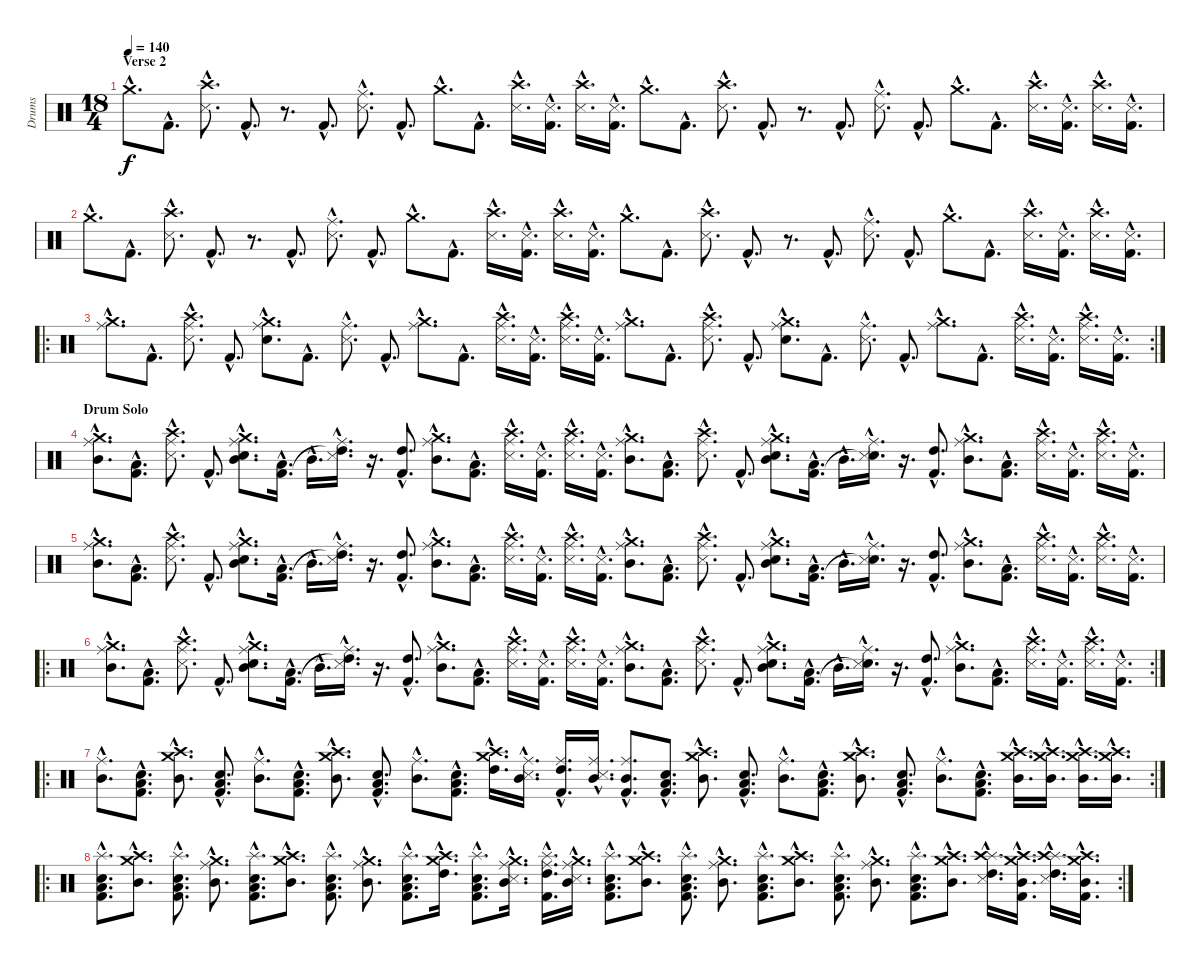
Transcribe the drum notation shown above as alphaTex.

\track ("Drums" "Drums") {instrument percussion}
\staff {score}
\articulation defaults
\ts (18 4)
\section ("" "Verse 2")
\tempo 140
\clef neutral
\ks c "Crash medium (hit)"{hac}.8{d dy f} "Kick (hit) 2"{hac}.8{d}
("Crash high (hit)"{hac} "Snare (side stick) 3"{hac}).8{d} "Kick (hit) 2"{hac}.8{d} r.8{d} "Kick (hit) 2"{hac}.8{d} ("Ride (middle)"{hac} "Snare (side stick) 3"{hac}).8{d} "Kick (hit) 2"{hac}.8{d} "Crash medium (hit)"{hac}.8{d} "Kick (hit) 2"{hac}.8{d} ("Crash high (hit)"{hac} "Snare (side stick) 3"{hac}).16{d} ("Snare (side stick) 3"{hac} "Kick (hit) 2"{hac}).16{d} ("Crash high (hit)"{hac} "Snare (side stick) 3"{hac}).16{d} ("Snare (side stick) 3"{hac} "Kick (hit) 2"{hac}).16{d} "Crash medium (hit)"{hac}.8{d} "Kick (hit) 2"{hac}.8{d} ("Crash high (hit)"{hac} "Snare (side stick) 3"{hac}).8{d} "Kick (hit) 2"{hac}.8{d} r.8{d} "Kick (hit) 2"{hac}.8{d} ("Ride (middle)"{hac} "Snare (side stick) 3"{hac}).8{d} "Kick (hit) 2"{hac}.8{d} "Crash medium (hit)"{hac}.8{d} "Kick (hit) 2"{hac}.8{d} ("Crash high (hit)"{hac} "Snare (side stick) 3"{hac}).16{d} ("Snare (side stick) 3"{hac} "Kick (hit) 2"{hac}).16{d} ("Crash high (hit)"{hac} "Snare (side stick) 3"{hac}).16{d} ("Snare (side stick) 3"{hac} "Kick (hit) 2"{hac}).16{d} |
"Crash medium (hit)"{hac}.8{d} "Kick (hit) 2"{hac}.8{d} ("Crash high (hit)"{hac} "Snare (side stick) 3"{hac}).8{d} "Kick (hit) 2"{hac}.8{d} r.8{d} "Kick (hit) 2"{hac}.8{d} ("Ride (middle)"{hac} "Snare (side stick) 3"{hac}).8{d} "Kick (hit) 2"{hac}.8{d} "Crash medium (hit)"{hac}.8{d} "Kick (hit) 2"{hac}.8{d} ("Crash high (hit)"{hac} "Snare (side stick) 3"{hac}).16{d} ("Snare (side stick) 3"{hac} "Kick (hit) 2"{hac}).16{d} ("Crash high (hit)"{hac} "Snare (side stick) 3"{hac}).16{d} ("Snare (side stick) 3"{hac} "Kick (hit) 2"{hac}).16{d} "Crash medium (hit)"{hac}.8{d} "Kick (hit) 2"{hac}.8{d} ("Crash high (hit)"{hac} "Snare (side stick) 3"{hac}).8{d} "Kick (hit) 2"{hac}.8{d} r.8{d} "Kick (hit) 2"{hac}.8{d} ("Ride (middle)"{hac} "Snare (side stick) 3"{hac}).8{d} "Kick (hit) 2"{hac}.8{d} "Crash medium (hit)"{hac}.8{d} "Kick (hit) 2"{hac}.8{d} ("Crash high (hit)"{hac} "Snare (side stick) 3"{hac}).16{d} ("Snare (side stick) 3"{hac} "Kick (hit) 2"{hac}).16{d} ("Crash high (hit)"{hac} "Snare (side stick) 3"{hac}).16{d} ("Snare (side stick) 3"{hac} "Kick (hit) 2"{hac}).16{d} |
\ro
\rc 2
("Crash medium (hit)"{hac} "Ride (middle)"{hac}).8{d} "Kick (hit) 2"{hac}.8{d} ("Ride (middle)"{hac} "Crash high (hit)"{hac} "Snare (side stick) 3"{hac}).8{d} "Kick (hit) 2"{hac}.8{d} ("Crash medium (hit)"{hac} "Ride (middle)"{hac} "Electric Snare (hit)"{hac}).8{d} "Kick (hit) 2"{hac}.8{d} ("Ride (middle)"{hac} "Snare (side stick) 3"{hac}).8{d} "Kick (hit) 2"{hac}.8{d} ("Crash medium (hit)"{hac} "Ride (middle)"{hac}).8{d} "Kick (hit) 2"{hac}.8{d} ("Ride (middle)"{hac} "Crash high (hit)"{hac} "Snare (side stick) 3"{hac}).16{d} ("Snare (side stick) 3"{hac} "Kick (hit) 2"{hac}).16{d} ("Ride (middle)"{hac} "Crash high (hit)"{hac} "Snare (side stick) 3"{hac}).16{d} ("Snare (side stick) 3"{hac} "Kick (hit) 2"{hac}).16{d} ("Crash medium (hit)"{hac} "Ride (middle)"{hac}).8{d} "Kick (hit) 2"{hac}.8{d} ("Ride (middle)"{hac} "Crash high (hit)"{hac} "Snare (side stick) 3"{hac}).8{d} "Kick (hit) 2"{hac}.8{d} ("Crash medium (hit)"{hac} "Ride (middle)"{hac} "Electric Snare (hit)"{hac}).8{d} "Kick (hit) 2"{hac}.8{d} ("Ride (middle)"{hac} "Snare (side stick) 3"{hac}).8{d} "Kick (hit) 2"{hac}.8{d} ("Crash medium (hit)"{hac} "Ride (middle)"{hac}).8{d} "Kick (hit) 2"{hac}.8{d} ("Ride (middle)"{hac} "Crash high (hit)"{hac} "Snare (side stick) 3"{hac}).16{d} ("Snare (side stick) 3"{hac} "Kick (hit) 2"{hac}).16{d} ("Ride (middle)"{hac} "Crash high (hit)"{hac} "Snare (side stick) 3"{hac}).16{d} ("Snare (side stick) 3"{hac} "Kick (hit) 2"{hac}).16{d} |
\section ("" "Drum Solo")
("Crash medium (hit)"{hac} "Ride (middle)"{hac} "Mid Tom (hit)"{hac}).8{d} ("Low Tom (hit)"{hac} "Kick (hit) 2"{hac}).8{d} ("Ride (middle)"{hac} "Crash high (hit)"{hac} "Snare (side stick) 3"{hac}).8{d} "Kick (hit) 2"{hac}.8{d} ("Crash medium (hit)"{hac} "Ride (middle)"{hac} "Mid Tom (hit)"{hac} "Electric Snare (hit)"{hac}).8{d} ("Low Tom (hit)"{hac} "Kick (hit) 2"{hac}).16{d} "Mid Tom (hit)"{hac}.16{d} ("Ride (middle)"{hac} "High Tom (hit)"{hac t} "Snare (side stick) 3"{hac}).16{d} r.16{d} ("High Tom (hit)"{hac} "Kick (hit) 2"{hac}).8{d} ("Crash medium (hit)"{hac} "Ride (middle)"{hac} "Mid Tom (hit)"{hac}).8{d} ("Low Tom (hit)"{hac} "Kick (hit) 2"{hac}).8{d} ("Ride (middle)"{hac} "Crash high (hit)"{hac} "Snare (side stick) 3"{hac}).16{d} ("Snare (side stick) 3"{hac} "Kick (hit) 2"{hac}).16{d} ("Ride (middle)"{hac} "Crash high (hit)"{hac} "Snare (side stick) 3"{hac}).16{d} ("Snare (side stick) 3"{hac} "Kick (hit) 2"{hac}).16{d} ("Crash medium (hit)"{hac} "Ride (middle)"{hac} "Mid Tom (hit)"{hac}).8{d} ("Low Tom (hit)"{hac} "Kick (hit) 2"{hac}).8{d} ("Ride (middle)"{hac} "Crash high (hit)"{hac} "Snare (side stick) 3"{hac}).8{d} "Kick (hit) 2"{hac}.8{d} ("Crash medium (hit)"{hac} "Ride (middle)"{hac} "Mid Tom (hit)"{hac} "Electric Snare (hit)"{hac}).8{d} ("Low Tom (hit)"{hac} "Kick (hit) 2"{hac}).16{d} "Mid Tom (hit)"{hac}.16{d} ("Ride (middle)"{hac} "Snare (hit)"{hac t} "Snare (side stick) 3"{hac}).16{d} r.16{d} ("High Tom (hit)"{hac} "Kick (hit) 2"{hac}).8{d} ("Crash medium (hit)"{hac} "Ride (middle)"{hac} "Mid Tom (hit)"{hac}).8{d} ("Low Tom (hit)"{hac} "Kick (hit) 2"{hac}).8{d} ("Ride (middle)"{hac} "Crash high (hit)"{hac} "Snare (side stick) 3"{hac}).16{d} ("Snare (side stick) 3"{hac} "Kick (hit) 2"{hac}).16{d} ("Ride (middle)"{hac} "Crash high (hit)"{hac} "Snare (side stick) 3"{hac}).16{d} ("Snare (side stick) 3"{hac} "Kick (hit) 2"{hac}).16{d} |
("Crash medium (hit)"{hac} "Ride (middle)"{hac} "Mid Tom (hit)"{hac}).8{d} ("Low Tom (hit)"{hac} "Kick (hit) 2"{hac}).8{d} ("Ride (middle)"{hac} "Crash high (hit)"{hac} "Snare (side stick) 3"{hac}).8{d} "Kick (hit) 2"{hac}.8{d} ("Crash medium (hit)"{hac} "Ride (middle)"{hac} "Mid Tom (hit)"{hac} "Electric Snare (hit)"{hac}).8{d} ("Low Tom (hit)"{hac} "Kick (hit) 2"{hac}).16{d} "Mid Tom (hit)"{hac}.16{d} ("Ride (middle)"{hac} "High Tom (hit)"{hac t} "Snare (side stick) 3"{hac}).16{d} r.16{d} ("High Tom (hit)"{hac} "Kick (hit) 2"{hac}).8{d} ("Crash medium (hit)"{hac} "Ride (middle)"{hac} "Mid Tom (hit)"{hac}).8{d} ("Low Tom (hit)"{hac} "Kick (hit) 2"{hac}).8{d} ("Ride (middle)"{hac} "Crash high (hit)"{hac} "Snare (side stick) 3"{hac}).16{d} ("Snare (side stick) 3"{hac} "Kick (hit) 2"{hac}).16{d} ("Ride (middle)"{hac} "Crash high (hit)"{hac} "Snare (side stick) 3"{hac}).16{d} ("Snare (side stick) 3"{hac} "Kick (hit) 2"{hac}).16{d} ("Crash medium (hit)"{hac} "Ride (middle)"{hac} "Mid Tom (hit)"{hac}).8{d} ("Low Tom (hit)"{hac} "Kick (hit) 2"{hac}).8{d} ("Ride (middle)"{hac} "Crash high (hit)"{hac} "Snare (side stick) 3"{hac}).8{d} "Kick (hit) 2"{hac}.8{d} ("Crash medium (hit)"{hac} "Ride (middle)"{hac} "Mid Tom (hit)"{hac} "Electric Snare (hit)"{hac}).8{d} ("Low Tom (hit)"{hac} "Kick (hit) 2"{hac}).16{d} "Mid Tom (hit)"{hac}.16{d} ("Ride (middle)"{hac} "Snare (hit)"{hac t} "Snare (side stick) 3"{hac}).16{d} r.16{d} ("High Tom (hit)"{hac} "Kick (hit) 2"{hac}).8{d} ("Crash medium (hit)"{hac} "Ride (middle)"{hac} "Mid Tom (hit)"{hac}).8{d} ("Low Tom (hit)"{hac} "Kick (hit) 2"{hac}).8{d} ("Ride (middle)"{hac} "Crash high (hit)"{hac} "Snare (side stick) 3"{hac}).16{d} ("Snare (side stick) 3"{hac} "Kick (hit) 2"{hac}).16{d} ("Ride (middle)"{hac} "Crash high (hit)"{hac} "Snare (side stick) 3"{hac}).16{d} ("Snare (side stick) 3"{hac} "Kick (hit) 2"{hac}).16{d} |
\ro
\rc 2
("Crash medium (hit)"{hac} "Ride (middle)"{hac} "Mid Tom (hit)"{hac}).8{d} ("Low Tom (hit)"{hac} "Kick (hit) 2"{hac}).8{d} ("Ride (middle)"{hac} "Crash high (hit)"{hac} "Snare (side stick) 3"{hac}).8{d} "Kick (hit) 2"{hac}.8{d} ("Crash medium (hit)"{hac} "Ride (middle)"{hac} "Mid Tom (hit)"{hac} "Electric Snare (hit)"{hac}).8{d} ("Low Tom (hit)"{hac} "Kick (hit) 2"{hac}).16{d} "Mid Tom (hit)"{hac}.16{d} ("Ride (middle)"{hac} "High Tom (hit)"{hac t} "Snare (side stick) 3"{hac}).16{d} r.16{d} ("High Tom (hit)"{hac} "Kick (hit) 2"{hac}).8{d} ("Crash medium (hit)"{hac} "Ride (middle)"{hac} "Mid Tom (hit)"{hac}).8{d} ("Low Tom (hit)"{hac} "Kick (hit) 2"{hac}).8{d} ("Ride (middle)"{hac} "Crash high (hit)"{hac} "Snare (side stick) 3"{hac}).16{d} ("Snare (side stick) 3"{hac} "Kick (hit) 2"{hac}).16{d} ("Ride (middle)"{hac} "Crash high (hit)"{hac} "Snare (side stick) 3"{hac}).16{d} ("Snare (side stick) 3"{hac} "Kick (hit) 2"{hac}).16{d} ("Crash medium (hit)"{hac} "Ride (middle)"{hac} "Mid Tom (hit)"{hac}).8{d} ("Low Tom (hit)"{hac} "Kick (hit) 2"{hac}).8{d} ("Ride (middle)"{hac} "Crash high (hit)"{hac} "Snare (side stick) 3"{hac}).8{d} "Kick (hit) 2"{hac}.8{d} ("Crash medium (hit)"{hac} "Ride (middle)"{hac} "Mid Tom (hit)"{hac} "Electric Snare (hit)"{hac}).8{d} ("Low Tom (hit)"{hac} "Kick (hit) 2"{hac}).16{d} "Mid Tom (hit)"{hac}.16{d} ("Ride (middle)"{hac} "Snare (hit)"{hac t} "Snare (side stick) 3"{hac}).16{d} r.16{d} ("High Tom (hit)"{hac} "Kick (hit) 2"{hac}).8{d} ("Crash medium (hit)"{hac} "Ride (middle)"{hac} "Mid Tom (hit)"{hac}).8{d} ("Low Tom (hit)"{hac} "Kick (hit) 2"{hac}).8{d} ("Ride (middle)"{hac} "Crash high (hit)"{hac} "Snare (side stick) 3"{hac}).16{d} ("Snare (side stick) 3"{hac} "Kick (hit) 2"{hac}).16{d} ("Ride (middle)"{hac} "Crash high (hit)"{hac} "Snare (side stick) 3"{hac}).16{d} ("Snare (side stick) 3"{hac} "Kick (hit) 2"{hac}).16{d} |
\ro
\rc 2
("Ride (middle)"{hac} "Mid Tom (hit)"{hac}).8{d} ("Low Tom (hit)"{hac} "Electric Snare (hit)"{hac} "Kick (hit) 2"{hac}).8{d} ("Crash medium (hit)"{hac} "Crash high (hit)"{hac} "Mid Tom (hit)"{hac}).8{d} ("Low Tom (hit)"{hac} "Electric Snare (hit)"{hac} "Kick (hit) 2"{hac}).8{d} ("Ride (middle)"{hac} "Mid Tom (hit)"{hac}).8{d} ("Low Tom (hit)"{hac} "Electric Snare (hit)"{hac} "Kick (hit) 2"{hac}).8{d} ("Crash medium (hit)"{hac} "Crash high (hit)"{hac} "Mid Tom (hit)"{hac}).8{d} ("Low Tom (hit)"{hac} "Electric Snare (hit)"{hac} "Kick (hit) 2"{hac}).8{d} ("Ride (middle)"{hac} "Mid Tom (hit)"{hac}).8{d} ("Low Tom (hit)"{hac} "Electric Snare (hit)"{hac} "Kick (hit) 2"{hac}).8{d} ("Crash medium (hit)"{hac} "Crash high (hit)"{hac} "High Tom (hit)"{hac}).16{d} ("Ride (middle)"{hac} "Mid Tom (hit)"{hac} "Snare (side stick) 3"{hac}).16{d} ("Ride (middle)"{hac} "High Tom (hit)"{hac} "Kick (hit) 2"{hac}).16{d} ("Ride (middle)"{hac} "Mid Tom (hit)"{hac} "Snare (side stick) 3"{hac}).16{d} ("Ride (middle)"{hac} "Mid Tom (hit)"{hac} "Kick (hit) 2"{hac}).8{d} ("Low Tom (hit)"{hac} "Electric Snare (hit)"{hac} "Kick (hit) 2"{hac}).8{d} ("Crash medium (hit)"{hac} "Crash high (hit)"{hac} "Mid Tom (hit)"{hac}).8{d} ("Low Tom (hit)"{hac} "Electric Snare (hit)"{hac} "Kick (hit) 2"{hac}).8{d} ("Ride (middle)"{hac} "Mid Tom (hit)"{hac}).8{d} ("Low Tom (hit)"{hac} "Electric Snare (hit)"{hac} "Kick (hit) 2"{hac}).8{d} ("Crash medium (hit)"{hac} "Crash high (hit)"{hac} "Mid Tom (hit)"{hac}).8{d} ("Low Tom (hit)"{hac} "Electric Snare (hit)"{hac} "Kick (hit) 2"{hac}).8{d} ("Ride (middle)"{hac} "Mid Tom (hit)"{hac}).8{d} ("Low Tom (hit)"{hac} "Electric Snare (hit)"{hac} "Kick (hit) 2"{hac}).8{d} ("Crash medium (hit)"{hac} "Crash high (hit)"{hac} "Mid Tom (hit)"{hac}).16{d} ("Crash medium (hit)"{hac} "Crash high (hit)"{hac} "Mid Tom (hit)"{hac}).16{d} ("Crash medium (hit)"{hac} "Crash high (hit)"{hac} "Mid Tom (hit)"{hac}).16{d} ("Crash medium (hit)"{hac} "Crash high (hit)"{hac} "Mid Tom (hit)"{hac}).16{d} |
\ro
\rc 2
("Splash (hit)"{hac} "Low Tom (hit)"{hac} "Electric Snare (hit)"{hac} "Kick (hit) 2"{hac}).8{d} ("Crash medium (hit)"{hac} "Crash high (hit)"{hac} "Mid Tom (hit)"{hac}).8{d} ("Splash (hit)"{hac} "Low Tom (hit)"{hac} "Electric Snare (hit)"{hac} "Kick (hit) 2"{hac}).8{d} ("Crash medium (hit)"{hac} "Ride (middle)"{hac} "Mid Tom (hit)"{hac}).8{d} ("Splash (hit)"{hac} "Low Tom (hit)"{hac} "Electric Snare (hit)"{hac} "Kick (hit) 2"{hac}).8{d} ("Crash medium (hit)"{hac} "Crash high (hit)"{hac} "Mid Tom (hit)"{hac}).8{d} ("Splash (hit)"{hac} "Low Tom (hit)"{hac} "Electric Snare (hit)"{hac} "Kick (hit) 2"{hac}).8{d} ("Crash medium (hit)"{hac} "Ride (middle)"{hac} "Mid Tom (hit)"{hac}).8{d} ("Splash (hit)"{hac} "Low Tom (hit)"{hac} "Electric Snare (hit)"{hac} "Kick (hit) 2"{hac}).8{d} ("Crash medium (hit)"{hac} "Crash high (hit)"{hac} "High Tom (hit)"{hac}).16{d} ("Splash (hit)"{hac} "Low Tom (hit)"{hac} "Electric Snare (hit)"{hac} "Kick (hit) 2"{hac}).8{d} ("Crash medium (hit)"{hac} "Ride (middle)"{hac} "Mid Tom (hit)"{hac} "Snare (side stick) 3"{hac}).16{d} ("Splash (hit)"{hac} "Ride (middle)"{hac} "High Tom (hit)"{hac} "Kick (hit) 2"{hac}).16{d} ("Crash medium (hit)"{hac} "Ride (middle)"{hac} "Mid Tom (hit)"{hac} "Snare (side stick) 3"{hac}).16{d} ("Splash (hit)"{hac} "Low Tom (hit)"{hac} "Electric Snare (hit)"{hac} "Kick (hit) 2"{hac}).8{d} ("Crash medium (hit)"{hac} "Crash high (hit)"{hac} "Mid Tom (hit)"{hac}).8{d} ("Splash (hit)"{hac} "Low Tom (hit)"{hac} "Electric Snare (hit)"{hac} "Kick (hit) 2"{hac}).8{d} ("Crash medium (hit)"{hac} "Ride (middle)"{hac} "Mid Tom (hit)"{hac}).8{d} ("Splash (hit)"{hac} "Low Tom (hit)"{hac} "Electric Snare (hit)"{hac} "Kick (hit) 2"{hac}).8{d} ("Crash medium (hit)"{hac} "Crash high (hit)"{hac} "Mid Tom (hit)"{hac}).8{d} ("Splash (hit)"{hac} "Low Tom (hit)"{hac} "Electric Snare (hit)"{hac} "Kick (hit) 2"{hac}).8{d} ("Crash medium (hit)"{hac} "Ride (middle)"{hac} "Mid Tom (hit)"{hac}).8{d} ("Splash (hit)"{hac} "Low Tom (hit)"{hac} "Electric Snare (hit)"{hac} "Kick (hit) 2"{hac}).8{d} ("Crash medium (hit)"{hac} "Crash high (hit)"{hac} "Mid Tom (hit)"{hac}).8{d} ("Splash (hit)"{hac} "Crash high (hit)"{hac} "High Tom (hit)"{hac} "Snare (side stick) 3"{hac}).16{d} ("Crash medium (hit)"{hac} "Crash high (hit)"{hac} "Mid Tom (hit)"{hac} "Kick (hit) 2"{hac}).16{d} ("Splash (hit)"{hac} "Crash high (hit)"{hac} "High Tom (hit)"{hac} "Snare (side stick) 3"{hac}).16{d} ("Crash medium (hit)"{hac} "Crash high (hit)"{hac} "Mid Tom (hit)"{hac} "Kick (hit) 2"{hac}).16{d}
